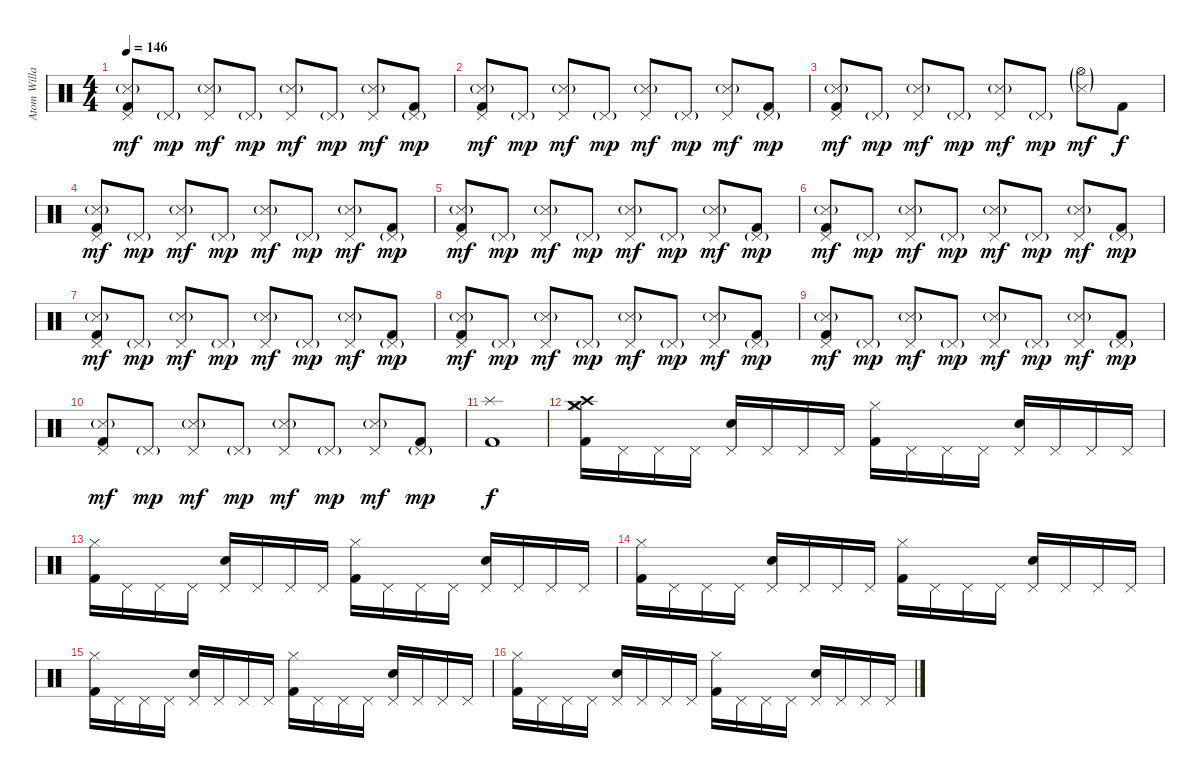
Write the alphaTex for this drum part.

\track ("Atom Willard" "Atom Willa") {instrument percussion}
\staff {score}
\articulation defaults
\ts (4 4)
\tempo 146
\clef neutral
\ks c
("Pedal Hi-Hat (hit)" "Metronome (hit)"{g} "Kick (hit) 2").8{dy mf} "Pedal Hi-Hat (hit)"{g}.8{dy mp} ("Pedal Hi-Hat (hit)" "Metronome (hit)"{g}).8{dy mf} "Pedal Hi-Hat (hit)"{g}.8{dy mp} ("Pedal Hi-Hat (hit)" "Metronome (hit)"{g}).8{dy mf} "Pedal Hi-Hat (hit)"{g}.8{dy mp} ("Pedal Hi-Hat (hit)" "Metronome (hit)"{g}).8{dy mf} ("Pedal Hi-Hat (hit)"{g} "Kick (hit) 2").8{dy mp} |
("Pedal Hi-Hat (hit)" "Metronome (hit)"{g} "Kick (hit) 2").8{dy mf} "Pedal Hi-Hat (hit)"{g}.8{dy mp} ("Pedal Hi-Hat (hit)" "Metronome (hit)"{g}).8{dy mf} "Pedal Hi-Hat (hit)"{g}.8{dy mp} ("Pedal Hi-Hat (hit)" "Metronome (hit)"{g}).8{dy mf} "Pedal Hi-Hat (hit)"{g}.8{dy mp} ("Pedal Hi-Hat (hit)" "Metronome (hit)"{g}).8{dy mf} ("Pedal Hi-Hat (hit)"{g} "Kick (hit) 2").8{dy mp} |
("Pedal Hi-Hat (hit)" "Metronome (hit)"{g} "Kick (hit) 2").8{dy mf} "Pedal Hi-Hat (hit)"{g}.8{dy mp} ("Pedal Hi-Hat (hit)" "Metronome (hit)"{g}).8{dy mf} "Pedal Hi-Hat (hit)"{g}.8{dy mp} ("Pedal Hi-Hat (hit)" "Metronome (hit)"{g}).8{dy mf} "Pedal Hi-Hat (hit)"{g}.8{dy mp} ("Hi-Hat (open)"{g} "Metronome (hit)"{g}).8{dy mf} "Kick (hit) 2".8{dy f} |
("Pedal Hi-Hat (hit)" "Metronome (hit)"{g} "Kick (hit) 2").8{dy mf} "Pedal Hi-Hat (hit)"{g}.8{dy mp} ("Pedal Hi-Hat (hit)" "Metronome (hit)"{g}).8{dy mf} "Pedal Hi-Hat (hit)"{g}.8{dy mp} ("Pedal Hi-Hat (hit)" "Metronome (hit)"{g}).8{dy mf} "Pedal Hi-Hat (hit)"{g}.8{dy mp} ("Pedal Hi-Hat (hit)" "Metronome (hit)"{g}).8{dy mf} ("Pedal Hi-Hat (hit)"{g} "Kick (hit) 2").8{dy mp} |
("Pedal Hi-Hat (hit)" "Metronome (hit)"{g} "Kick (hit) 2").8{dy mf} "Pedal Hi-Hat (hit)"{g}.8{dy mp} ("Pedal Hi-Hat (hit)" "Metronome (hit)"{g}).8{dy mf} "Pedal Hi-Hat (hit)"{g}.8{dy mp} ("Pedal Hi-Hat (hit)" "Metronome (hit)"{g}).8{dy mf} "Pedal Hi-Hat (hit)"{g}.8{dy mp} ("Pedal Hi-Hat (hit)" "Metronome (hit)"{g}).8{dy mf} ("Pedal Hi-Hat (hit)"{g} "Kick (hit) 2").8{dy mp} |
("Pedal Hi-Hat (hit)" "Metronome (hit)"{g} "Kick (hit) 2").8{dy mf} "Pedal Hi-Hat (hit)"{g}.8{dy mp} ("Pedal Hi-Hat (hit)" "Metronome (hit)"{g}).8{dy mf} "Pedal Hi-Hat (hit)"{g}.8{dy mp} ("Pedal Hi-Hat (hit)" "Metronome (hit)"{g}).8{dy mf} "Pedal Hi-Hat (hit)"{g}.8{dy mp} ("Pedal Hi-Hat (hit)" "Metronome (hit)"{g}).8{dy mf} ("Pedal Hi-Hat (hit)"{g} "Kick (hit) 2").8{dy mp} |
("Pedal Hi-Hat (hit)" "Metronome (hit)"{g} "Kick (hit) 2").8{dy mf} "Pedal Hi-Hat (hit)"{g}.8{dy mp} ("Pedal Hi-Hat (hit)" "Metronome (hit)"{g}).8{dy mf} "Pedal Hi-Hat (hit)"{g}.8{dy mp} ("Pedal Hi-Hat (hit)" "Metronome (hit)"{g}).8{dy mf} "Pedal Hi-Hat (hit)"{g}.8{dy mp} ("Pedal Hi-Hat (hit)" "Metronome (hit)"{g}).8{dy mf} ("Pedal Hi-Hat (hit)"{g} "Kick (hit) 2").8{dy mp} |
("Pedal Hi-Hat (hit)" "Metronome (hit)"{g} "Kick (hit) 2").8{dy mf} "Pedal Hi-Hat (hit)"{g}.8{dy mp} ("Pedal Hi-Hat (hit)" "Metronome (hit)"{g}).8{dy mf} "Pedal Hi-Hat (hit)"{g}.8{dy mp} ("Pedal Hi-Hat (hit)" "Metronome (hit)"{g}).8{dy mf} "Pedal Hi-Hat (hit)"{g}.8{dy mp} ("Pedal Hi-Hat (hit)" "Metronome (hit)"{g}).8{dy mf} ("Pedal Hi-Hat (hit)"{g} "Kick (hit) 2").8{dy mp} |
("Pedal Hi-Hat (hit)" "Metronome (hit)"{g} "Kick (hit) 2").8{dy mf} "Pedal Hi-Hat (hit)"{g}.8{dy mp} ("Pedal Hi-Hat (hit)" "Metronome (hit)"{g}).8{dy mf} "Pedal Hi-Hat (hit)"{g}.8{dy mp} ("Pedal Hi-Hat (hit)" "Metronome (hit)"{g}).8{dy mf} "Pedal Hi-Hat (hit)"{g}.8{dy mp} ("Pedal Hi-Hat (hit)" "Metronome (hit)"{g}).8{dy mf} ("Pedal Hi-Hat (hit)"{g} "Kick (hit) 2").8{dy mp} |
("Pedal Hi-Hat (hit)" "Metronome (hit)"{g} "Kick (hit) 2").8{dy mf} "Pedal Hi-Hat (hit)"{g}.8{dy mp} ("Pedal Hi-Hat (hit)" "Metronome (hit)"{g}).8{dy mf} "Pedal Hi-Hat (hit)"{g}.8{dy mp} ("Pedal Hi-Hat (hit)" "Metronome (hit)"{g}).8{dy mf} "Pedal Hi-Hat (hit)"{g}.8{dy mp} ("Pedal Hi-Hat (hit)" "Metronome (hit)"{g}).8{dy mf} ("Pedal Hi-Hat (hit)"{g} "Kick (hit) 2").8{dy mp} |
("Splash (hit)" "Kick (hit) 2").1{dy f} |
("Crash medium (hit)" "Crash high (hit)" "Hi-Hat (closed)" "Kick (hit) 2").16 "Pedal Hi-Hat (hit)".16 "Pedal Hi-Hat (hit)".16 "Pedal Hi-Hat (hit)".16 ("Pedal Hi-Hat (hit)" "Electric Snare (hit)").16 "Pedal Hi-Hat (hit)".16 "Pedal Hi-Hat (hit)".16 "Pedal Hi-Hat (hit)".16 ("Hi-Hat (closed)" "Kick (hit) 2").16 "Pedal Hi-Hat (hit)".16 "Pedal Hi-Hat (hit)".16 "Pedal Hi-Hat (hit)".16 ("Pedal Hi-Hat (hit)" "Electric Snare (hit)").16 "Pedal Hi-Hat (hit)".16 "Pedal Hi-Hat (hit)".16 "Pedal Hi-Hat (hit)".16 |
("Hi-Hat (closed)" "Kick (hit) 2").16 "Pedal Hi-Hat (hit)".16 "Pedal Hi-Hat (hit)".16 "Pedal Hi-Hat (hit)".16 ("Pedal Hi-Hat (hit)" "Electric Snare (hit)").16 "Pedal Hi-Hat (hit)".16 "Pedal Hi-Hat (hit)".16 "Pedal Hi-Hat (hit)".16 ("Hi-Hat (closed)" "Kick (hit) 2").16 "Pedal Hi-Hat (hit)".16 "Pedal Hi-Hat (hit)".16 "Pedal Hi-Hat (hit)".16 ("Pedal Hi-Hat (hit)" "Electric Snare (hit)").16 "Pedal Hi-Hat (hit)".16 "Pedal Hi-Hat (hit)".16 "Pedal Hi-Hat (hit)".16 |
("Hi-Hat (closed)" "Kick (hit) 2").16 "Pedal Hi-Hat (hit)".16 "Pedal Hi-Hat (hit)".16 "Pedal Hi-Hat (hit)".16 ("Pedal Hi-Hat (hit)" "Electric Snare (hit)").16 "Pedal Hi-Hat (hit)".16 "Pedal Hi-Hat (hit)".16 "Pedal Hi-Hat (hit)".16 ("Hi-Hat (closed)" "Kick (hit) 2").16 "Pedal Hi-Hat (hit)".16 "Pedal Hi-Hat (hit)".16 "Pedal Hi-Hat (hit)".16 ("Pedal Hi-Hat (hit)" "Electric Snare (hit)").16 "Pedal Hi-Hat (hit)".16 "Pedal Hi-Hat (hit)".16 "Pedal Hi-Hat (hit)".16 |
("Hi-Hat (closed)" "Kick (hit) 2").16 "Pedal Hi-Hat (hit)".16 "Pedal Hi-Hat (hit)".16 "Pedal Hi-Hat (hit)".16 ("Pedal Hi-Hat (hit)" "Electric Snare (hit)").16 "Pedal Hi-Hat (hit)".16 "Pedal Hi-Hat (hit)".16 "Pedal Hi-Hat (hit)".16 ("Hi-Hat (closed)" "Kick (hit) 2").16 "Pedal Hi-Hat (hit)".16 "Pedal Hi-Hat (hit)".16 "Pedal Hi-Hat (hit)".16 ("Pedal Hi-Hat (hit)" "Electric Snare (hit)").16 "Pedal Hi-Hat (hit)".16 "Pedal Hi-Hat (hit)".16 "Pedal Hi-Hat (hit)".16 |
("Hi-Hat (closed)" "Kick (hit) 2").16 "Pedal Hi-Hat (hit)".16 "Pedal Hi-Hat (hit)".16 "Pedal Hi-Hat (hit)".16 ("Pedal Hi-Hat (hit)" "Electric Snare (hit)").16 "Pedal Hi-Hat (hit)".16 "Pedal Hi-Hat (hit)".16 "Pedal Hi-Hat (hit)".16 ("Hi-Hat (closed)" "Kick (hit) 2").16 "Pedal Hi-Hat (hit)".16 "Pedal Hi-Hat (hit)".16 "Pedal Hi-Hat (hit)".16 ("Pedal Hi-Hat (hit)" "Electric Snare (hit)").16 "Pedal Hi-Hat (hit)".16 "Pedal Hi-Hat (hit)".16 "Pedal Hi-Hat (hit)".16
